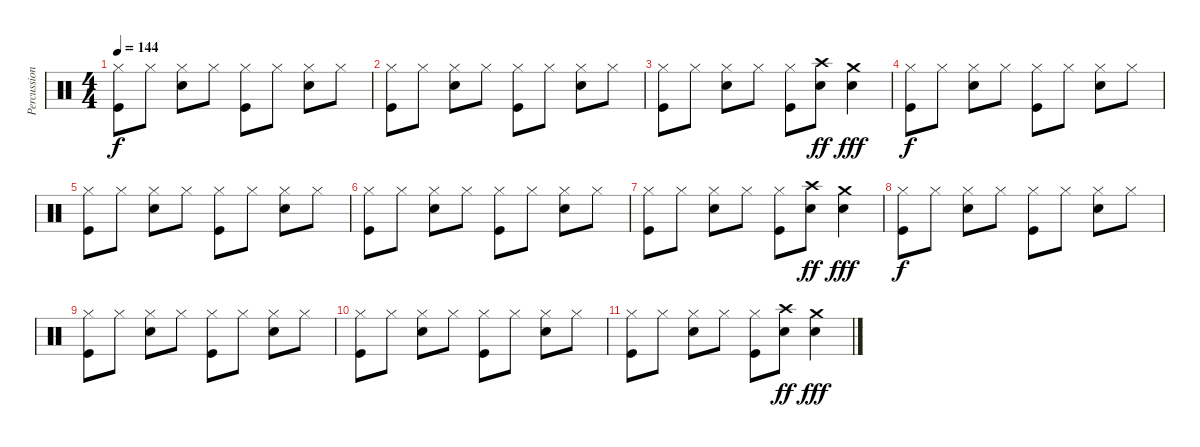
\track ("Percussions" "Percussion") {instrument percussion}
\staff {score}
\articulation defaults
\ts (4 4)
\tempo 144
\clef neutral
\ks c
("Hi-Hat (closed)" "Kick (hit)").8{dy f} "Hi-Hat (closed)".8 ("Hi-Hat (closed)" "Snare (hit) 2").8 "Hi-Hat (closed)".8 ("Hi-Hat (closed)" "Kick (hit)").8 "Hi-Hat (closed)".8 ("Hi-Hat (closed)" "Snare (hit) 2").8 "Hi-Hat (closed)".8 |
("Hi-Hat (closed)" "Kick (hit)").8 "Hi-Hat (closed)".8 ("Hi-Hat (closed)" "Snare (hit) 2").8 "Hi-Hat (closed)".8 ("Hi-Hat (closed)" "Kick (hit)").8 "Hi-Hat (closed)".8 ("Hi-Hat (closed)" "Snare (hit) 2").8 "Hi-Hat (closed)".8 |
("Hi-Hat (closed)" "Kick (hit)").8 "Hi-Hat (closed)".8 ("Hi-Hat (closed)" "Snare (hit) 2").8 "Hi-Hat (closed)".8 ("Hi-Hat (closed)" "Kick (hit)").8 ("Crash high (hit)" "Snare (hit) 2").8{dy ff} ("Crash medium (hit)" "Snare (hit) 2").4{dy fff} |
("Hi-Hat (closed)" "Kick (hit)").8{dy f volume 7} "Hi-Hat (closed)".8 ("Hi-Hat (closed)" "Snare (hit) 2").8 "Hi-Hat (closed)".8 ("Hi-Hat (closed)" "Kick (hit)").8 "Hi-Hat (closed)".8 ("Hi-Hat (closed)" "Snare (hit) 2").8 "Hi-Hat (closed)".8 |
("Hi-Hat (closed)" "Kick (hit)").8 "Hi-Hat (closed)".8 ("Hi-Hat (closed)" "Snare (hit) 2").8 "Hi-Hat (closed)".8 ("Hi-Hat (closed)" "Kick (hit)").8 "Hi-Hat (closed)".8 ("Hi-Hat (closed)" "Snare (hit) 2").8 "Hi-Hat (closed)".8 |
("Hi-Hat (closed)" "Kick (hit)").8 "Hi-Hat (closed)".8 ("Hi-Hat (closed)" "Snare (hit) 2").8 "Hi-Hat (closed)".8 ("Hi-Hat (closed)" "Kick (hit)").8 "Hi-Hat (closed)".8 ("Hi-Hat (closed)" "Snare (hit) 2").8 "Hi-Hat (closed)".8 |
("Hi-Hat (closed)" "Kick (hit)").8 "Hi-Hat (closed)".8 ("Hi-Hat (closed)" "Snare (hit) 2").8 "Hi-Hat (closed)".8 ("Hi-Hat (closed)" "Kick (hit)").8 ("Crash high (hit)" "Snare (hit) 2").8{dy ff} ("Crash medium (hit)" "Snare (hit) 2").4{dy fff} |
("Hi-Hat (closed)" "Kick (hit)").8{dy f volume 0} "Hi-Hat (closed)".8 ("Hi-Hat (closed)" "Snare (hit) 2").8 "Hi-Hat (closed)".8 ("Hi-Hat (closed)" "Kick (hit)").8 "Hi-Hat (closed)".8 ("Hi-Hat (closed)" "Snare (hit) 2").8 "Hi-Hat (closed)".8 |
("Hi-Hat (closed)" "Kick (hit)").8 "Hi-Hat (closed)".8 ("Hi-Hat (closed)" "Snare (hit) 2").8 "Hi-Hat (closed)".8 ("Hi-Hat (closed)" "Kick (hit)").8 "Hi-Hat (closed)".8 ("Hi-Hat (closed)" "Snare (hit) 2").8 "Hi-Hat (closed)".8 |
("Hi-Hat (closed)" "Kick (hit)").8 "Hi-Hat (closed)".8 ("Hi-Hat (closed)" "Snare (hit) 2").8 "Hi-Hat (closed)".8 ("Hi-Hat (closed)" "Kick (hit)").8 "Hi-Hat (closed)".8 ("Hi-Hat (closed)" "Snare (hit) 2").8 "Hi-Hat (closed)".8 |
("Hi-Hat (closed)" "Kick (hit)").8 "Hi-Hat (closed)".8 ("Hi-Hat (closed)" "Snare (hit) 2").8 "Hi-Hat (closed)".8 ("Hi-Hat (closed)" "Kick (hit)").8 ("Crash high (hit)" "Snare (hit) 2").8{dy ff} ("Crash medium (hit)" "Snare (hit) 2").4{dy fff}
